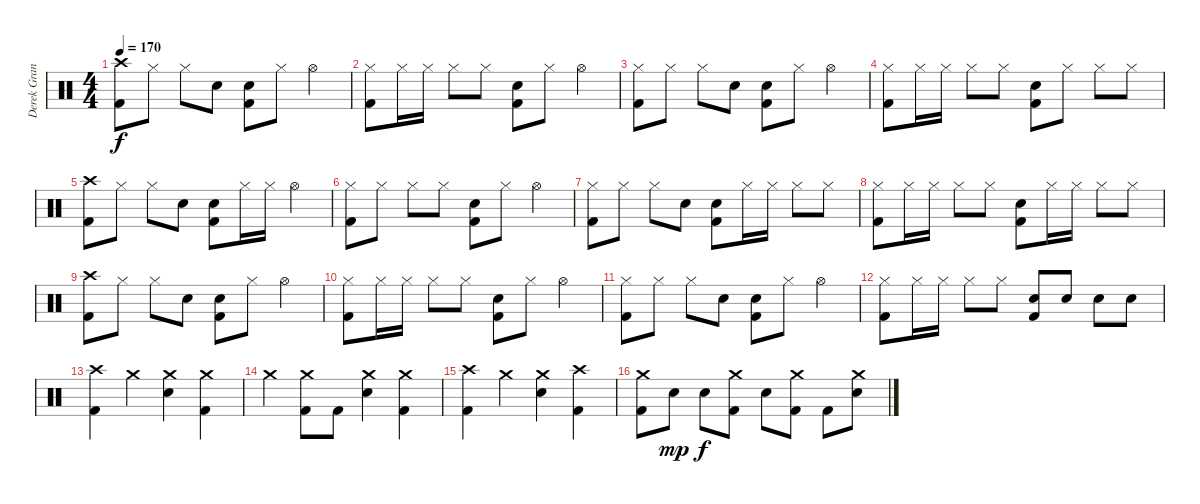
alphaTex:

\track ("Derek Grant" "Derek Gran") {instrument percussion}
\staff {score}
\articulation defaults
\ts (4 4)
\tempo 170
\clef neutral
\ks c
("Crash high (hit)" "Kick (hit) 2").8{dy f} "Hi-Hat (closed)".8 "Hi-Hat (closed)".8 "Snare (hit) 2".8 ("Snare (hit) 2" "Kick (hit) 2").8 "Hi-Hat (closed)".8 "Hi-Hat (open)".4 |
("Hi-Hat (closed)" "Kick (hit) 2").8 "Hi-Hat (closed)".16 "Hi-Hat (closed)".16 "Hi-Hat (closed)".8 "Hi-Hat (closed)".8 ("Snare (hit) 2" "Kick (hit) 2").8 "Hi-Hat (closed)".8 "Hi-Hat (open)".4 |
("Hi-Hat (closed)" "Kick (hit) 2").8 "Hi-Hat (closed)".8 "Hi-Hat (closed)".8 "Snare (hit) 2".8 ("Snare (hit) 2" "Kick (hit) 2").8 "Hi-Hat (closed)".8 "Hi-Hat (open)".4 |
("Hi-Hat (closed)" "Kick (hit) 2").8 "Hi-Hat (closed)".16 "Hi-Hat (closed)".16 "Hi-Hat (closed)".8 "Hi-Hat (closed)".8 ("Snare (hit) 2" "Kick (hit) 2").8 "Hi-Hat (closed)".8 "Hi-Hat (closed)".8 "Hi-Hat (closed)".8 |
("Crash high (hit)" "Kick (hit) 2").8 "Hi-Hat (closed)".8 "Hi-Hat (closed)".8 "Snare (hit) 2".8 ("Snare (hit) 2" "Kick (hit) 2").8 "Hi-Hat (closed)".16 "Hi-Hat (closed)".16 "Hi-Hat (open)".4 |
("Hi-Hat (closed)" "Kick (hit) 2").8 "Hi-Hat (closed)".8 "Hi-Hat (closed)".8 "Hi-Hat (closed)".8 ("Snare (hit) 2" "Kick (hit) 2").8 "Hi-Hat (closed)".8 "Hi-Hat (open)".4 |
("Hi-Hat (closed)" "Kick (hit) 2").8 "Hi-Hat (closed)".8 "Hi-Hat (closed)".8 "Snare (hit) 2".8 ("Snare (hit) 2" "Kick (hit) 2").8 "Hi-Hat (closed)".16 "Hi-Hat (closed)".16 "Hi-Hat (closed)".8 "Hi-Hat (closed)".8 |
("Hi-Hat (closed)" "Kick (hit) 2").8 "Hi-Hat (closed)".16 "Hi-Hat (closed)".16 "Hi-Hat (closed)".8 "Hi-Hat (closed)".8 ("Snare (hit) 2" "Kick (hit) 2").8 "Hi-Hat (closed)".16 "Hi-Hat (closed)".16 "Hi-Hat (closed)".8 "Hi-Hat (closed)".8 |
("Crash high (hit)" "Kick (hit) 2").8 "Hi-Hat (closed)".8 "Hi-Hat (closed)".8 "Snare (hit) 2".8 ("Snare (hit) 2" "Kick (hit) 2").8 "Hi-Hat (closed)".8 "Hi-Hat (open)".4 |
("Hi-Hat (closed)" "Kick (hit) 2").8 "Hi-Hat (closed)".16 "Hi-Hat (closed)".16 "Hi-Hat (closed)".8 "Hi-Hat (closed)".8 ("Snare (hit) 2" "Kick (hit) 2").8 "Hi-Hat (closed)".8 "Hi-Hat (open)".4 |
("Hi-Hat (closed)" "Kick (hit) 2").8 "Hi-Hat (closed)".8 "Hi-Hat (closed)".8 "Snare (hit) 2".8 ("Snare (hit) 2" "Kick (hit) 2").8 "Hi-Hat (closed)".8 "Hi-Hat (open)".4 |
("Hi-Hat (closed)" "Kick (hit) 2").8 "Hi-Hat (closed)".16 "Hi-Hat (closed)".16 "Hi-Hat (closed)".8 "Hi-Hat (closed)".8 ("Snare (hit) 2" "Kick (hit) 2").8 "Snare (hit) 2".8 "Snare (hit) 2".8 "Snare (hit) 2".8 |
("Crash high (hit)" "Kick (hit) 2").4 "Crash medium (hit)".4 ("Crash medium (hit)" "Snare (hit) 2").4 ("Crash medium (hit)" "Kick (hit) 2").4 |
"Crash medium (hit)".4 ("Crash medium (hit)" "Kick (hit) 2").8 "Kick (hit) 2".8 ("Crash medium (hit)" "Snare (hit) 2").4 ("Crash medium (hit)" "Kick (hit) 2").4 |
("Crash high (hit)" "Kick (hit) 2").4 "Crash medium (hit)".4 ("Crash medium (hit)" "Snare (hit) 2").4 ("Crash high (hit)" "Kick (hit) 2").4 |
("Crash medium (hit)" "Kick (hit) 2").8 "Snare (hit) 2".8{dy mp} "Snare (hit) 2".8{dy f} ("Crash medium (hit)" "Kick (hit) 2").8 "Snare (hit) 2".8 ("Crash medium (hit)" "Kick (hit) 2").8 "Kick (hit) 2".8 ("Crash medium (hit)" "Snare (hit) 2").8
